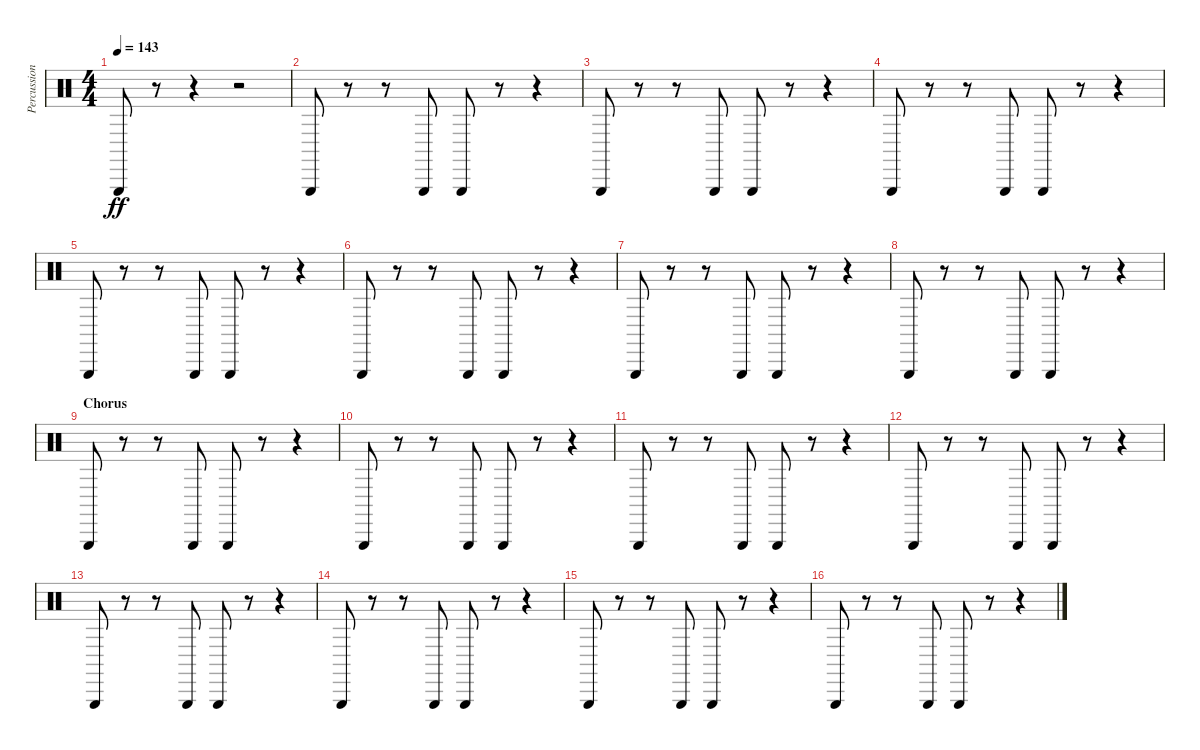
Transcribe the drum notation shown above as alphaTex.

\track ("Percussion" "Percussion") {instrument percussion}
\staff {score}
\articulation defaults
\ts (4 4)
\tempo 143
\clef neutral
\ks c "Triangle (hit)".8{dy ff}
r.8 r.4 r.2 |
"Triangle (hit)".8 r.8 r.8 "Triangle (hit)".8 "Triangle (hit)".8 r.8 r.4 |
"Triangle (hit)".8 r.8 r.8 "Triangle (hit)".8 "Triangle (hit)".8 r.8 r.4 |
"Triangle (hit)".8 r.8 r.8 "Triangle (hit)".8 "Triangle (hit)".8 r.8 r.4 |
"Triangle (hit)".8 r.8 r.8 "Triangle (hit)".8 "Triangle (hit)".8 r.8 r.4 |
"Triangle (hit)".8 r.8 r.8 "Triangle (hit)".8 "Triangle (hit)".8 r.8 r.4 |
"Triangle (hit)".8 r.8 r.8 "Triangle (hit)".8 "Triangle (hit)".8 r.8 r.4 |
"Triangle (hit)".8 r.8 r.8 "Triangle (hit)".8 "Triangle (hit)".8 r.8 r.4 |
\section ("" "Chorus")
"Triangle (hit)".8 r.8 r.8 "Triangle (hit)".8 "Triangle (hit)".8 r.8 r.4 |
"Triangle (hit)".8 r.8 r.8 "Triangle (hit)".8 "Triangle (hit)".8 r.8 r.4 |
"Triangle (hit)".8 r.8 r.8 "Triangle (hit)".8 "Triangle (hit)".8 r.8 r.4 |
"Triangle (hit)".8 r.8 r.8 "Triangle (hit)".8 "Triangle (hit)".8 r.8 r.4 |
"Triangle (hit)".8 r.8 r.8 "Triangle (hit)".8 "Triangle (hit)".8 r.8 r.4 |
"Triangle (hit)".8 r.8 r.8 "Triangle (hit)".8 "Triangle (hit)".8 r.8 r.4 |
"Triangle (hit)".8 r.8 r.8 "Triangle (hit)".8 "Triangle (hit)".8 r.8 r.4 |
"Triangle (hit)".8 r.8 r.8 "Triangle (hit)".8 "Triangle (hit)".8 r.8 r.4
